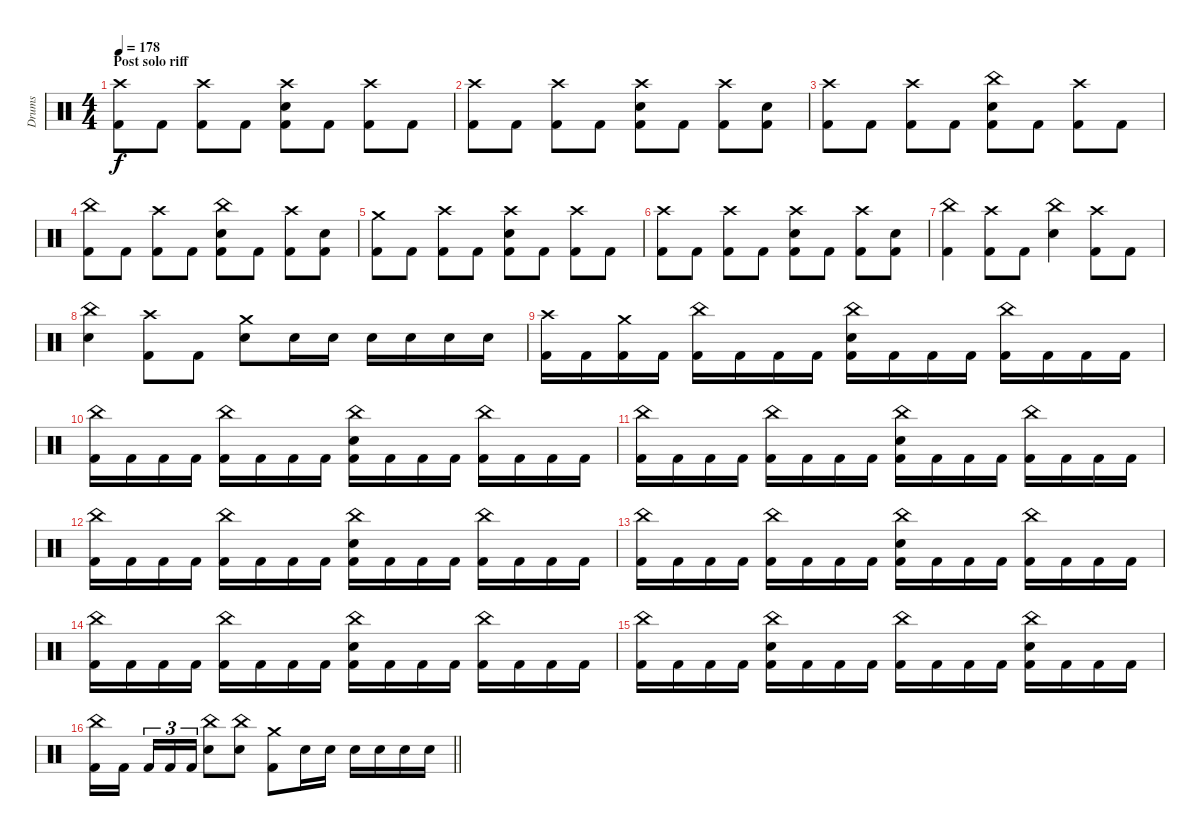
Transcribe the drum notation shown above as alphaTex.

\track ("Drums" "Drums") {instrument percussion}
\staff {score}
\articulation defaults
\ts (4 4)
\section ("" "Post solo riff")
\tempo 178
\clef neutral
\ks c
("Crash high (hit)" "Kick (hit) 2").8{dy f} "Kick (hit) 2".8 ("Crash high (hit)" "Kick (hit) 2").8 "Kick (hit) 2".8 ("Crash high (hit)" "Electric Snare (hit)" "Kick (hit) 2").8 "Kick (hit) 2".8 ("Crash high (hit)" "Kick (hit) 2").8 "Kick (hit) 2".8 |
("Crash high (hit)" "Kick (hit) 2").8 "Kick (hit) 2".8 ("Crash high (hit)" "Kick (hit) 2").8 "Kick (hit) 2".8 ("Crash high (hit)" "Electric Snare (hit)" "Kick (hit) 2").8 "Kick (hit) 2".8 ("Crash high (hit)" "Kick (hit) 2").8 ("Electric Snare (hit)" "Kick (hit) 2").8 |
("Crash high (hit)" "Kick (hit) 2").8 "Kick (hit) 2".8 ("Crash high (hit)" "Kick (hit) 2").8 "Kick (hit) 2".8 ("China (hit)" "Electric Snare (hit)" "Kick (hit) 2").8 "Kick (hit) 2".8 ("Crash high (hit)" "Kick (hit) 2").8 "Kick (hit) 2".8 |
("China (hit)" "Kick (hit) 2").8 "Kick (hit) 2".8 ("Crash high (hit)" "Kick (hit) 2").8 "Kick (hit) 2".8 ("China (hit)" "Electric Snare (hit)" "Kick (hit) 2").8 "Kick (hit) 2".8 ("Crash high (hit)" "Kick (hit) 2").8 ("Electric Snare (hit)" "Kick (hit) 2").8 |
("Crash medium (hit)" "Kick (hit) 2").8 "Kick (hit) 2".8 ("Crash high (hit)" "Kick (hit) 2").8 "Kick (hit) 2".8 ("Crash high (hit)" "Electric Snare (hit)" "Kick (hit) 2").8 "Kick (hit) 2".8 ("Crash high (hit)" "Kick (hit) 2").8 "Kick (hit) 2".8 |
("Crash high (hit)" "Kick (hit) 2").8 "Kick (hit) 2".8 ("Crash high (hit)" "Kick (hit) 2").8 "Kick (hit) 2".8 ("Crash high (hit)" "Electric Snare (hit)" "Kick (hit) 2").8 "Kick (hit) 2".8 ("Crash high (hit)" "Kick (hit) 2").8 ("Electric Snare (hit)" "Kick (hit) 2").8 |
("China (hit)" "Kick (hit) 2").4 ("Crash high (hit)" "Kick (hit) 2").8 "Kick (hit) 2".8 ("China (hit)" "Electric Snare (hit)").4 ("Crash high (hit)" "Kick (hit) 2").8 "Kick (hit) 2".8 |
("China (hit)" "Electric Snare (hit)").4 ("Crash high (hit)" "Kick (hit) 2").8 "Kick (hit) 2".8 ("Crash medium (hit)" "Electric Snare (hit)").8 "Electric Snare (hit)".16 "Electric Snare (hit)".16 "Electric Snare (hit)".16 "Electric Snare (hit)".16 "Electric Snare (hit)".16 "Electric Snare (hit)".16 |
("Crash high (hit)" "Kick (hit) 2").16 "Kick (hit) 2".16 ("Crash medium (hit)" "Kick (hit) 2").16 "Kick (hit) 2".16 ("China (hit)" "Kick (hit) 2").16 "Kick (hit) 2".16 "Kick (hit) 2".16 "Kick (hit) 2".16 ("China (hit)" "Electric Snare (hit)" "Kick (hit) 2").16 "Kick (hit) 2".16 "Kick (hit) 2".16 "Kick (hit) 2".16 ("China (hit)" "Kick (hit) 2").16 "Kick (hit) 2".16 "Kick (hit) 2".16 "Kick (hit) 2".16 |
("China (hit)" "Kick (hit) 2").16 "Kick (hit) 2".16 "Kick (hit) 2".16 "Kick (hit) 2".16 ("China (hit)" "Kick (hit) 2").16 "Kick (hit) 2".16 "Kick (hit) 2".16 "Kick (hit) 2".16 ("China (hit)" "Electric Snare (hit)" "Kick (hit) 2").16 "Kick (hit) 2".16 "Kick (hit) 2".16 "Kick (hit) 2".16 ("China (hit)" "Kick (hit) 2").16 "Kick (hit) 2".16 "Kick (hit) 2".16 "Kick (hit) 2".16 |
("China (hit)" "Kick (hit) 2").16 "Kick (hit) 2".16 "Kick (hit) 2".16 "Kick (hit) 2".16 ("China (hit)" "Kick (hit) 2").16 "Kick (hit) 2".16 "Kick (hit) 2".16 "Kick (hit) 2".16 ("China (hit)" "Electric Snare (hit)" "Kick (hit) 2").16 "Kick (hit) 2".16 "Kick (hit) 2".16 "Kick (hit) 2".16 ("China (hit)" "Kick (hit) 2").16 "Kick (hit) 2".16 "Kick (hit) 2".16 "Kick (hit) 2".16 |
("China (hit)" "Kick (hit) 2").16 "Kick (hit) 2".16 "Kick (hit) 2".16 "Kick (hit) 2".16 ("China (hit)" "Kick (hit) 2").16 "Kick (hit) 2".16 "Kick (hit) 2".16 "Kick (hit) 2".16 ("China (hit)" "Electric Snare (hit)" "Kick (hit) 2").16 "Kick (hit) 2".16 "Kick (hit) 2".16 "Kick (hit) 2".16 ("China (hit)" "Kick (hit) 2").16 "Kick (hit) 2".16 "Kick (hit) 2".16 "Kick (hit) 2".16 |
("China (hit)" "Kick (hit) 2").16 "Kick (hit) 2".16 "Kick (hit) 2".16 "Kick (hit) 2".16 ("China (hit)" "Kick (hit) 2").16 "Kick (hit) 2".16 "Kick (hit) 2".16 "Kick (hit) 2".16 ("China (hit)" "Electric Snare (hit)" "Kick (hit) 2").16 "Kick (hit) 2".16 "Kick (hit) 2".16 "Kick (hit) 2".16 ("China (hit)" "Kick (hit) 2").16 "Kick (hit) 2".16 "Kick (hit) 2".16 "Kick (hit) 2".16 |
("China (hit)" "Kick (hit) 2").16 "Kick (hit) 2".16 "Kick (hit) 2".16 "Kick (hit) 2".16 ("China (hit)" "Kick (hit) 2").16 "Kick (hit) 2".16 "Kick (hit) 2".16 "Kick (hit) 2".16 ("China (hit)" "Electric Snare (hit)" "Kick (hit) 2").16 "Kick (hit) 2".16 "Kick (hit) 2".16 "Kick (hit) 2".16 ("China (hit)" "Kick (hit) 2").16 "Kick (hit) 2".16 "Kick (hit) 2".16 "Kick (hit) 2".16 |
("China (hit)" "Kick (hit) 2").16 "Kick (hit) 2".16 "Kick (hit) 2".16 "Kick (hit) 2".16 ("China (hit)" "Electric Snare (hit)" "Kick (hit) 2").16 "Kick (hit) 2".16 "Kick (hit) 2".16 "Kick (hit) 2".16 ("China (hit)" "Kick (hit) 2").16 "Kick (hit) 2".16 "Kick (hit) 2".16 "Kick (hit) 2".16 ("China (hit)" "Electric Snare (hit)" "Kick (hit) 2").16 "Kick (hit) 2".16 "Kick (hit) 2".16 "Kick (hit) 2".16 |
\barLineRight lightlight
("China (hit)" "Kick (hit) 2").16 "Kick (hit) 2".16{beam splitsecondary} "Kick (hit) 2".16{tu (3 2)} "Kick (hit) 2".16{tu (3 2)} "Kick (hit) 2".16{tu (3 2)} ("China (hit)" "Electric Snare (hit)").8 ("China (hit)" "Electric Snare (hit)").8 ("Crash medium (hit)" "Kick (hit) 2").8 "Electric Snare (hit)".16 "Electric Snare (hit)".16 "Electric Snare (hit)".16 "Electric Snare (hit)".16 "Electric Snare (hit)".16 "Electric Snare (hit)".16
